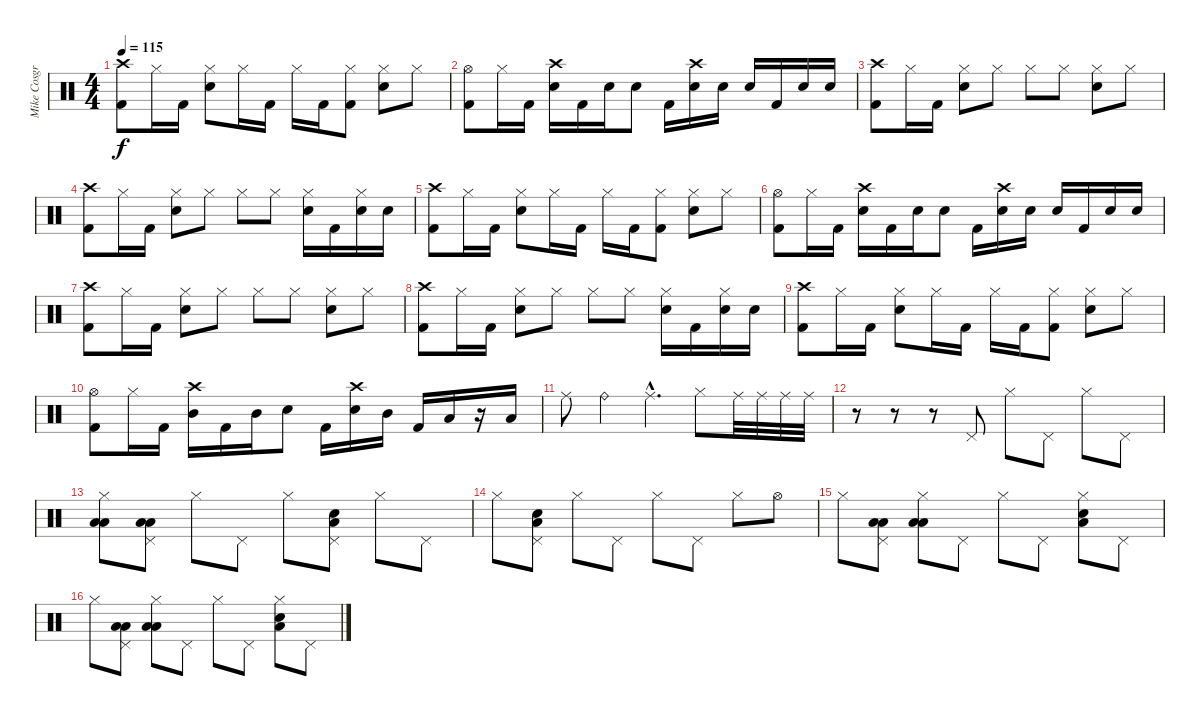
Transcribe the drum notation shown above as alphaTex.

\track ("Mike Cosgrove" "Mike Cosgr") {instrument percussion}
\staff {score}
\articulation defaults
\ts (4 4)
\tempo 115
\clef neutral
\ks c
("Crash high (hit)" "Kick (hit) 2").8{dy f} "Hi-Hat (closed)".16 "Kick (hit) 2".16 ("Hi-Hat (closed)" "Electric Snare (hit)").8 "Hi-Hat (closed)".16 "Kick (hit) 2".16 "Hi-Hat (closed)".16 "Kick (hit) 2".16 ("Hi-Hat (closed)" "Kick (hit) 2").8 ("Hi-Hat (closed)" "Electric Snare (hit)").8 "Hi-Hat (closed)".8 |
("Hi-Hat (open)" "Kick (hit) 2").8 "Hi-Hat (closed)".16 "Kick (hit) 2".16 ("Crash high (hit)" "Electric Snare (hit)").16 "Kick (hit) 2".16 "Electric Snare (hit)".16 "Electric Snare (hit)".8 "Kick (hit) 2".16 ("Crash high (hit)" "Electric Snare (hit)").16 "Electric Snare (hit)".16 "Electric Snare (hit)".16 "Kick (hit) 2".16 "Electric Snare (hit)".16 "Electric Snare (hit)".16 |
("Crash high (hit)" "Kick (hit) 2").8 "Hi-Hat (closed)".16 "Kick (hit) 2".16 ("Hi-Hat (closed)" "Electric Snare (hit)").8 "Hi-Hat (closed)".8 "Hi-Hat (closed)".8 "Hi-Hat (closed)".8 ("Hi-Hat (closed)" "Electric Snare (hit)").8 "Hi-Hat (closed)".8 |
("Crash high (hit)" "Kick (hit) 2").8 "Hi-Hat (closed)".16 "Kick (hit) 2".16 ("Hi-Hat (closed)" "Electric Snare (hit)").8 "Hi-Hat (closed)".8 "Hi-Hat (closed)".8 "Hi-Hat (closed)".8 ("Hi-Hat (closed)" "Electric Snare (hit)").16 "Kick (hit) 2".16 ("Hi-Hat (closed)" "Electric Snare (hit)").16 "Electric Snare (hit)".16 |
("Crash high (hit)" "Kick (hit) 2").8 "Hi-Hat (closed)".16 "Kick (hit) 2".16 ("Hi-Hat (closed)" "Electric Snare (hit)").8 "Hi-Hat (closed)".16 "Kick (hit) 2".16 "Hi-Hat (closed)".16 "Kick (hit) 2".16 ("Hi-Hat (closed)" "Kick (hit) 2").8 ("Hi-Hat (closed)" "Electric Snare (hit)").8 "Hi-Hat (closed)".8 |
("Hi-Hat (open)" "Kick (hit) 2").8 "Hi-Hat (closed)".16 "Kick (hit) 2".16 ("Crash high (hit)" "Electric Snare (hit)").16 "Kick (hit) 2".16 "Electric Snare (hit)".16 "Electric Snare (hit)".8 "Kick (hit) 2".16 ("Crash high (hit)" "Electric Snare (hit)").16 "Electric Snare (hit)".16 "Electric Snare (hit)".16 "Kick (hit) 2".16 "Electric Snare (hit)".16 "Electric Snare (hit)".16 |
("Crash high (hit)" "Kick (hit) 2").8 "Hi-Hat (closed)".16 "Kick (hit) 2".16 ("Hi-Hat (closed)" "Electric Snare (hit)").8 "Hi-Hat (closed)".8 "Hi-Hat (closed)".8 "Hi-Hat (closed)".8 ("Hi-Hat (closed)" "Electric Snare (hit)").8 "Hi-Hat (closed)".8 |
("Crash high (hit)" "Kick (hit) 2").8 "Hi-Hat (closed)".16 "Kick (hit) 2".16 ("Hi-Hat (closed)" "Electric Snare (hit)").8 "Hi-Hat (closed)".8 "Hi-Hat (closed)".8 "Hi-Hat (closed)".8 ("Hi-Hat (closed)" "Electric Snare (hit)").16 "Kick (hit) 2".16 ("Hi-Hat (closed)" "Electric Snare (hit)").16 "Electric Snare (hit)".16 |
("Crash high (hit)" "Kick (hit) 2").8 "Hi-Hat (closed)".16 "Kick (hit) 2".16 ("Hi-Hat (closed)" "Electric Snare (hit)").8 "Hi-Hat (closed)".16 "Kick (hit) 2".16 "Hi-Hat (closed)".16 "Kick (hit) 2".16 ("Hi-Hat (closed)" "Kick (hit) 2").8 ("Hi-Hat (closed)" "Electric Snare (hit)").8 "Hi-Hat (closed)".8 |
("Hi-Hat (open)" "Kick (hit) 2").8 "Hi-Hat (closed)".16 "Kick (hit) 2".16 ("Crash high (hit)" "Mid Tom (hit)").16 "Kick (hit) 2".16 "Mid Tom (hit)".16 "Electric Snare (hit)".8 "Kick (hit) 2".16 ("Crash high (hit)" "Electric Snare (hit)").16 "Mid Tom (hit)".16 "Kick (hit) 2".16 "Low Tom (hit)".16 r.16 "Low Floor Tom (hit)".16 |
"Ride (middle)".8 "Ride (bell)".4 "Ride (middle)"{hac}.4{d} "Hi-Hat (closed)".8 "Ride (middle)".32 "Ride (middle)".32 "Ride (middle)".32 "Ride (middle)".32 |
r.8 r.8 r.8 "Pedal Hi-Hat (hit)".8 "Hi-Hat (closed)".8 "Pedal Hi-Hat (hit)".8 "Hi-Hat (closed)".8 "Pedal Hi-Hat (hit)".8 |
("Hi-Hat (closed)" "Low Tom (hit)" "Low Floor Tom (hit)").8 ("Pedal Hi-Hat (hit)" "Low Tom (hit)" "Low Floor Tom (hit)").8 "Hi-Hat (closed)".8 "Pedal Hi-Hat (hit)".8 "Hi-Hat (closed)".8 ("Pedal Hi-Hat (hit)" "Electric Snare (hit)" "Low Floor Tom (hit)").8 "Hi-Hat (closed)".8 "Pedal Hi-Hat (hit)".8 |
"Hi-Hat (closed)".8 ("Pedal Hi-Hat (hit)" "Electric Snare (hit)" "Low Floor Tom (hit)").8 "Hi-Hat (closed)".8 "Pedal Hi-Hat (hit)".8 "Hi-Hat (closed)".8 "Pedal Hi-Hat (hit)".8 "Hi-Hat (closed)".8 "Hi-Hat (open)".8 |
"Hi-Hat (closed)".8 ("Pedal Hi-Hat (hit)" "Low Tom (hit)" "Low Floor Tom (hit)").8 ("Hi-Hat (closed)" "Low Tom (hit)" "Low Floor Tom (hit)").8 "Pedal Hi-Hat (hit)".8 "Hi-Hat (closed)".8 "Pedal Hi-Hat (hit)".8 ("Hi-Hat (closed)" "Electric Snare (hit)" "Low Floor Tom (hit)").8 "Pedal Hi-Hat (hit)".8 |
"Hi-Hat (closed)".8 ("Pedal Hi-Hat (hit)" "Low Tom (hit)" "Low Floor Tom (hit)").8 ("Hi-Hat (closed)" "Low Tom (hit)" "Low Floor Tom (hit)").8 "Pedal Hi-Hat (hit)".8 "Hi-Hat (closed)".8 "Pedal Hi-Hat (hit)".8 ("Hi-Hat (closed)" "Electric Snare (hit)" "Low Floor Tom (hit)").8 "Pedal Hi-Hat (hit)".8
